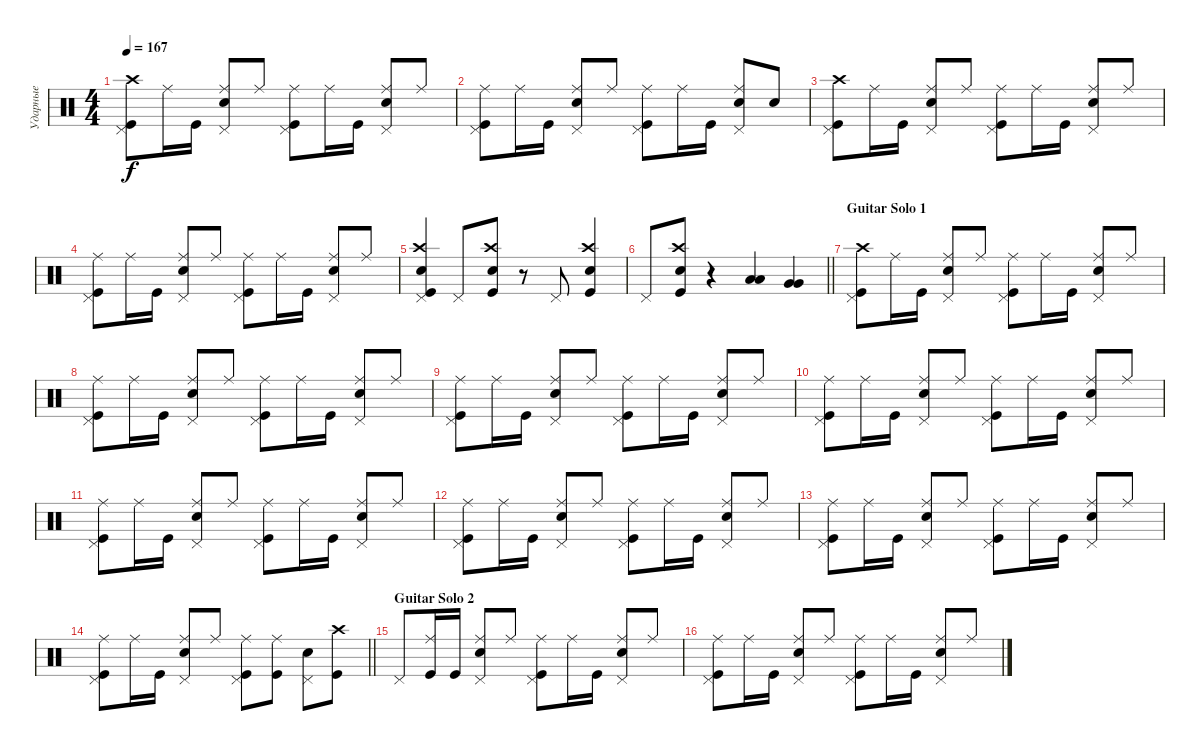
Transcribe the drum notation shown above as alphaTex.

\track ("Ударные" "Ударные") {instrument percussion}
\staff {score}
\articulation defaults
\ts (4 4)
\tempo 167
\clef neutral
\ks aminor
("Kick (hit)" "Pedal Hi-Hat (hit)" "Crash high (hit)").8{dy f} "Ride (middle)".16 "Kick (hit)".16 ("Ride (middle)" "Snare (hit) 2" "Pedal Hi-Hat (hit)").8 "Ride (middle)".8 ("Ride (middle)" "Kick (hit)" "Pedal Hi-Hat (hit)").8 "Ride (middle)".16 "Kick (hit)".16 ("Ride (middle)" "Snare (hit) 2" "Pedal Hi-Hat (hit)").8 "Ride (middle)".8 |
("Kick (hit)" "Ride (middle)" "Pedal Hi-Hat (hit)").8 "Ride (middle)".16 "Kick (hit)".16 ("Snare (hit) 2" "Ride (middle)" "Pedal Hi-Hat (hit)").8 "Ride (middle)".8 ("Ride (middle)" "Kick (hit)" "Pedal Hi-Hat (hit)").8 "Ride (middle)".16 "Kick (hit)".16 ("Ride (middle)" "Snare (hit) 2" "Pedal Hi-Hat (hit)").8 "Snare (hit) 2".8 |
("Kick (hit)" "Pedal Hi-Hat (hit)" "Crash high (hit)").8 "Ride (middle)".16 "Kick (hit)".16 ("Ride (middle)" "Snare (hit) 2" "Pedal Hi-Hat (hit)").8 "Ride (middle)".8 ("Ride (middle)" "Kick (hit)" "Pedal Hi-Hat (hit)").8 "Ride (middle)".16 "Kick (hit)".16 ("Ride (middle)" "Snare (hit) 2" "Pedal Hi-Hat (hit)").8 "Ride (middle)".8 |
("Kick (hit)" "Ride (middle)" "Pedal Hi-Hat (hit)").8 "Ride (middle)".16 "Kick (hit)".16 ("Snare (hit) 2" "Ride (middle)" "Pedal Hi-Hat (hit)").8 "Ride (middle)".8 ("Ride (middle)" "Kick (hit)" "Pedal Hi-Hat (hit)").8 "Ride (middle)".16 "Kick (hit)".16 ("Snare (hit) 2" "Ride (middle)" "Pedal Hi-Hat (hit)").8 "Ride (middle)".8 |
("Snare (hit) 2" "Crash high (hit)" "Kick (hit)" "Pedal Hi-Hat (hit)").4 "Pedal Hi-Hat (hit)".8 ("Crash high (hit)" "Kick (hit)" "Snare (hit) 2").8 r.8 "Pedal Hi-Hat (hit)".8 ("Crash high (hit)" "Snare (hit) 2" "Kick (hit)").4 |
\barLineRight lightlight "Pedal Hi-Hat (hit)".8
("Crash high (hit)" "Kick (hit)" "Snare (hit) 2").8 r.4 ("Low Tom (hit)" "Low Tom (hit)").4{bd 240} ("Very Low Tom (hit)" "Very Low Tom (hit)").4{bd 240} |
\section ("" "Guitar Solo 1")
("Kick (hit)" "Crash high (hit)" "Pedal Hi-Hat (hit)").8 "Ride (middle)".16 "Kick (hit)".16 ("Snare (hit) 2" "Ride (middle)" "Pedal Hi-Hat (hit)").8 "Ride (middle)".8 ("Ride (middle)" "Kick (hit)" "Pedal Hi-Hat (hit)").8 "Ride (middle)".16 "Kick (hit)".16 ("Snare (hit) 2" "Ride (middle)" "Pedal Hi-Hat (hit)").8 "Ride (middle)".8 |
("Kick (hit)" "Ride (middle)" "Pedal Hi-Hat (hit)").8 "Ride (middle)".16 "Kick (hit)".16 ("Snare (hit) 2" "Ride (middle)" "Pedal Hi-Hat (hit)").8 "Ride (middle)".8 ("Ride (middle)" "Kick (hit)" "Pedal Hi-Hat (hit)").8 "Ride (middle)".16 "Kick (hit)".16 ("Snare (hit) 2" "Ride (middle)" "Pedal Hi-Hat (hit)").8 "Ride (middle)".8 |
("Kick (hit)" "Ride (middle)" "Pedal Hi-Hat (hit)").8 "Ride (middle)".16 "Kick (hit)".16 ("Snare (hit) 2" "Ride (middle)" "Pedal Hi-Hat (hit)").8 "Ride (middle)".8 ("Ride (middle)" "Kick (hit)" "Pedal Hi-Hat (hit)").8 "Ride (middle)".16 "Kick (hit)".16 ("Snare (hit) 2" "Ride (middle)" "Pedal Hi-Hat (hit)").8 "Ride (middle)".8 |
("Kick (hit)" "Ride (middle)" "Pedal Hi-Hat (hit)").8 "Ride (middle)".16 "Kick (hit)".16 ("Snare (hit) 2" "Ride (middle)" "Pedal Hi-Hat (hit)").8 "Ride (middle)".8 ("Ride (middle)" "Kick (hit)" "Pedal Hi-Hat (hit)").8 "Ride (middle)".16 "Kick (hit)".16 ("Snare (hit) 2" "Ride (middle)" "Pedal Hi-Hat (hit)").8 "Ride (middle)".8 |
("Kick (hit)" "Ride (middle)" "Pedal Hi-Hat (hit)").8 "Ride (middle)".16 "Kick (hit)".16 ("Snare (hit) 2" "Ride (middle)" "Pedal Hi-Hat (hit)").8 "Ride (middle)".8 ("Ride (middle)" "Kick (hit)" "Pedal Hi-Hat (hit)").8 "Ride (middle)".16 "Kick (hit)".16 ("Snare (hit) 2" "Ride (middle)" "Pedal Hi-Hat (hit)").8 "Ride (middle)".8 |
("Kick (hit)" "Ride (middle)" "Pedal Hi-Hat (hit)").8 "Ride (middle)".16 "Kick (hit)".16 ("Snare (hit) 2" "Ride (middle)" "Pedal Hi-Hat (hit)").8 "Ride (middle)".8 ("Ride (middle)" "Kick (hit)" "Pedal Hi-Hat (hit)").8 "Ride (middle)".16 "Kick (hit)".16 ("Snare (hit) 2" "Ride (middle)" "Pedal Hi-Hat (hit)").8 "Ride (middle)".8 |
("Kick (hit)" "Ride (middle)" "Pedal Hi-Hat (hit)").8 "Ride (middle)".16 "Kick (hit)".16 ("Snare (hit) 2" "Ride (middle)" "Pedal Hi-Hat (hit)").8 "Ride (middle)".8 ("Ride (middle)" "Kick (hit)" "Pedal Hi-Hat (hit)").8 "Ride (middle)".16 "Kick (hit)".16 ("Snare (hit) 2" "Ride (middle)" "Pedal Hi-Hat (hit)").8 "Ride (middle)".8 |
\barLineRight lightlight
("Kick (hit)" "Ride (middle)" "Pedal Hi-Hat (hit)").8 "Ride (middle)".16 "Kick (hit)".16 ("Snare (hit) 2" "Ride (middle)" "Pedal Hi-Hat (hit)").8 "Ride (middle)".8 ("Ride (middle)" "Kick (hit)" "Pedal Hi-Hat (hit)").8 ("Ride (middle)" "Kick (hit)").8 ("Snare (hit) 2" "Pedal Hi-Hat (hit)").8 ("Kick (hit)" "Crash high (hit)").8 |
\section ("" "Guitar Solo 2")
"Pedal Hi-Hat (hit)".8 ("Ride (middle)" "Kick (hit)").16 "Kick (hit)".16 ("Snare (hit) 2" "Ride (middle)" "Pedal Hi-Hat (hit)").8 "Ride (middle)".8 ("Ride (middle)" "Kick (hit)" "Pedal Hi-Hat (hit)").8 "Ride (middle)".16 "Kick (hit)".16 ("Snare (hit) 2" "Ride (middle)" "Pedal Hi-Hat (hit)").8 "Ride (middle)".8 |
("Kick (hit)" "Ride (middle)" "Pedal Hi-Hat (hit)").8 "Ride (middle)".16 "Kick (hit)".16 ("Snare (hit) 2" "Ride (middle)" "Pedal Hi-Hat (hit)").8 "Ride (middle)".8 ("Ride (middle)" "Kick (hit)" "Pedal Hi-Hat (hit)").8 "Ride (middle)".16 "Kick (hit)".16 ("Snare (hit) 2" "Ride (middle)" "Pedal Hi-Hat (hit)").8 "Ride (middle)".8
